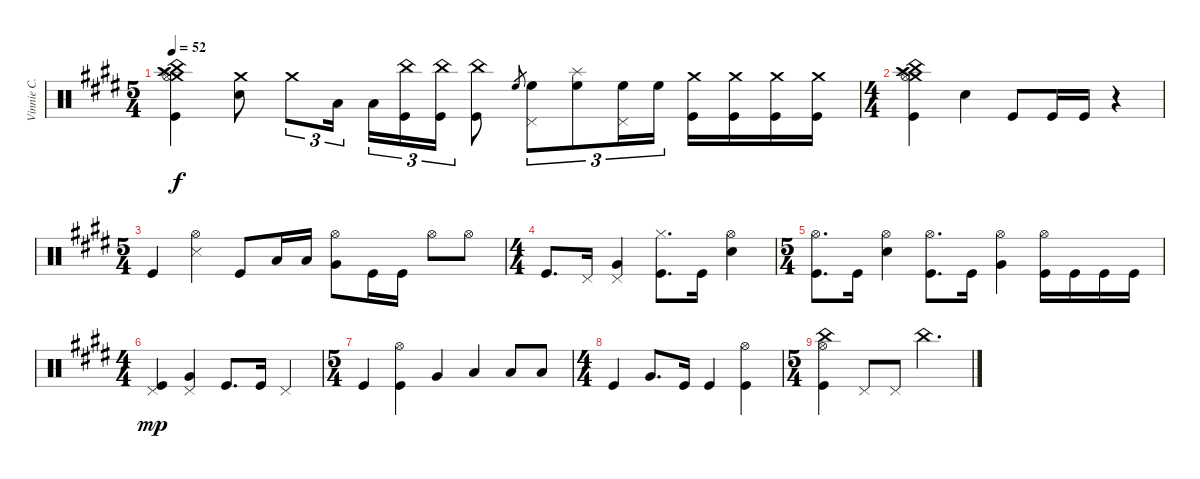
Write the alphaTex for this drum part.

\track ("Vinnie C." "Vinnie C.") {instrument percussion}
\staff {score}
\articulation defaults
\ts (5 4)
\tempo 52
\clef neutral
\ks e
("China (hit)" "Splash (hit)" "Crash high (hit)" "Crash medium (hit)" "Hi-Hat (open)" "Kick (hit)").4{dy f} ("Crash medium (hit)" "Electric Snare (hit)").8 "Crash medium (hit)".8{tu (3 2)} "Low Tom (hit)".16{tu (3 2)} "Low Tom (hit)".16{tu (3 2)} ("China (hit)" "Kick (hit)").16{tu (3 2)} ("China (hit)" "Kick (hit)").16{tu (3 2)} ("China (hit)" "Kick (hit)").8 "High Floor Tom (hit)".8{gr} ("Pedal Hi-Hat (hit)" "High Floor Tom (hit)").8{tu (3 2)} ("Splash (hit)" "High Floor Tom (hit)").8{tu (3 2)} ("Pedal Hi-Hat (hit)" "High Floor Tom (hit)").16{tu (3 2)} "High Floor Tom (hit)".16{tu (3 2)} ("Crash medium (hit)" "Kick (hit)").16 ("Crash medium (hit)" "Kick (hit)").16 ("Crash medium (hit)" "Kick (hit)").16 ("Crash medium (hit)" "Kick (hit)").16 |
\ts (4 4)
("China (hit)" "Crash high (hit)" "Crash medium (hit)" "Splash (hit)" "Hi-Hat (open)" "Kick (hit)").4 "Electric Snare (hit)".4 "Kick (hit)".8 "Kick (hit)".16 "Kick (hit)".16 r.4 |
\ts (5 4)
"Kick (hit)".4 ("Hi-Hat (open)" "Snare (side stick) 3").4 "Kick (hit)".8 "Low Tom (hit)".16 "Low Tom (hit)".16 ("Hi-Hat (open)" "Very Low Tom (hit)").8 "Kick (hit)".16 "Kick (hit)".16 "Hi-Hat (open)".8 "Hi-Hat (open)".8 |
\ts (4 4)
"Kick (hit)".8{d} "Pedal Hi-Hat (hit)".16 ("Pedal Hi-Hat (hit)" "Very Low Tom (hit)").4 ("Hi-Hat (closed)" "Kick (hit)").8{d} "Kick (hit)".16 ("Hi-Hat (open)" "Electric Snare (hit)").4 |
\ts (5 4)
("Hi-Hat (open)" "Kick (hit)").8{d} "Kick (hit)".16 ("Hi-Hat (open)" "Electric Snare (hit)").4 ("Hi-Hat (open)" "Kick (hit)").8{d} "Kick (hit)".16 ("Hi-Hat (open)" "Very Low Tom (hit)").4 ("Hi-Hat (open)" "Kick (hit)").16 "Kick (hit)".16 "Kick (hit)".16 "Kick (hit)".16 |
\ts (4 4)
("Pedal Hi-Hat (hit)" "Kick (hit)").4{dy mp} ("Pedal Hi-Hat (hit)" "Very Low Tom (hit)").4 "Kick (hit)".8{d} "Kick (hit)".16 "Pedal Hi-Hat (hit)".4 |
\ts (5 4)
"Kick (hit)".4 ("Hi-Hat (open)" "Kick (hit)").4 "Very Low Tom (hit)".4 "Low Floor Tom (hit)".4 "Low Floor Tom (hit)".8 "Low Floor Tom (hit)".8 |
\ts (4 4)
"Kick (hit)".4 "Very Low Tom (hit)".8{d} "Kick (hit)".16 "Kick (hit)".4 ("Hi-Hat (open)" "Kick (hit)").4 |
\ts (5 4)
("Hi-Hat (open)" "China (hit)" "Kick (hit)").4 "Pedal Hi-Hat (hit)".8 "Pedal Hi-Hat (hit)".8 "China (hit)".2{d}
